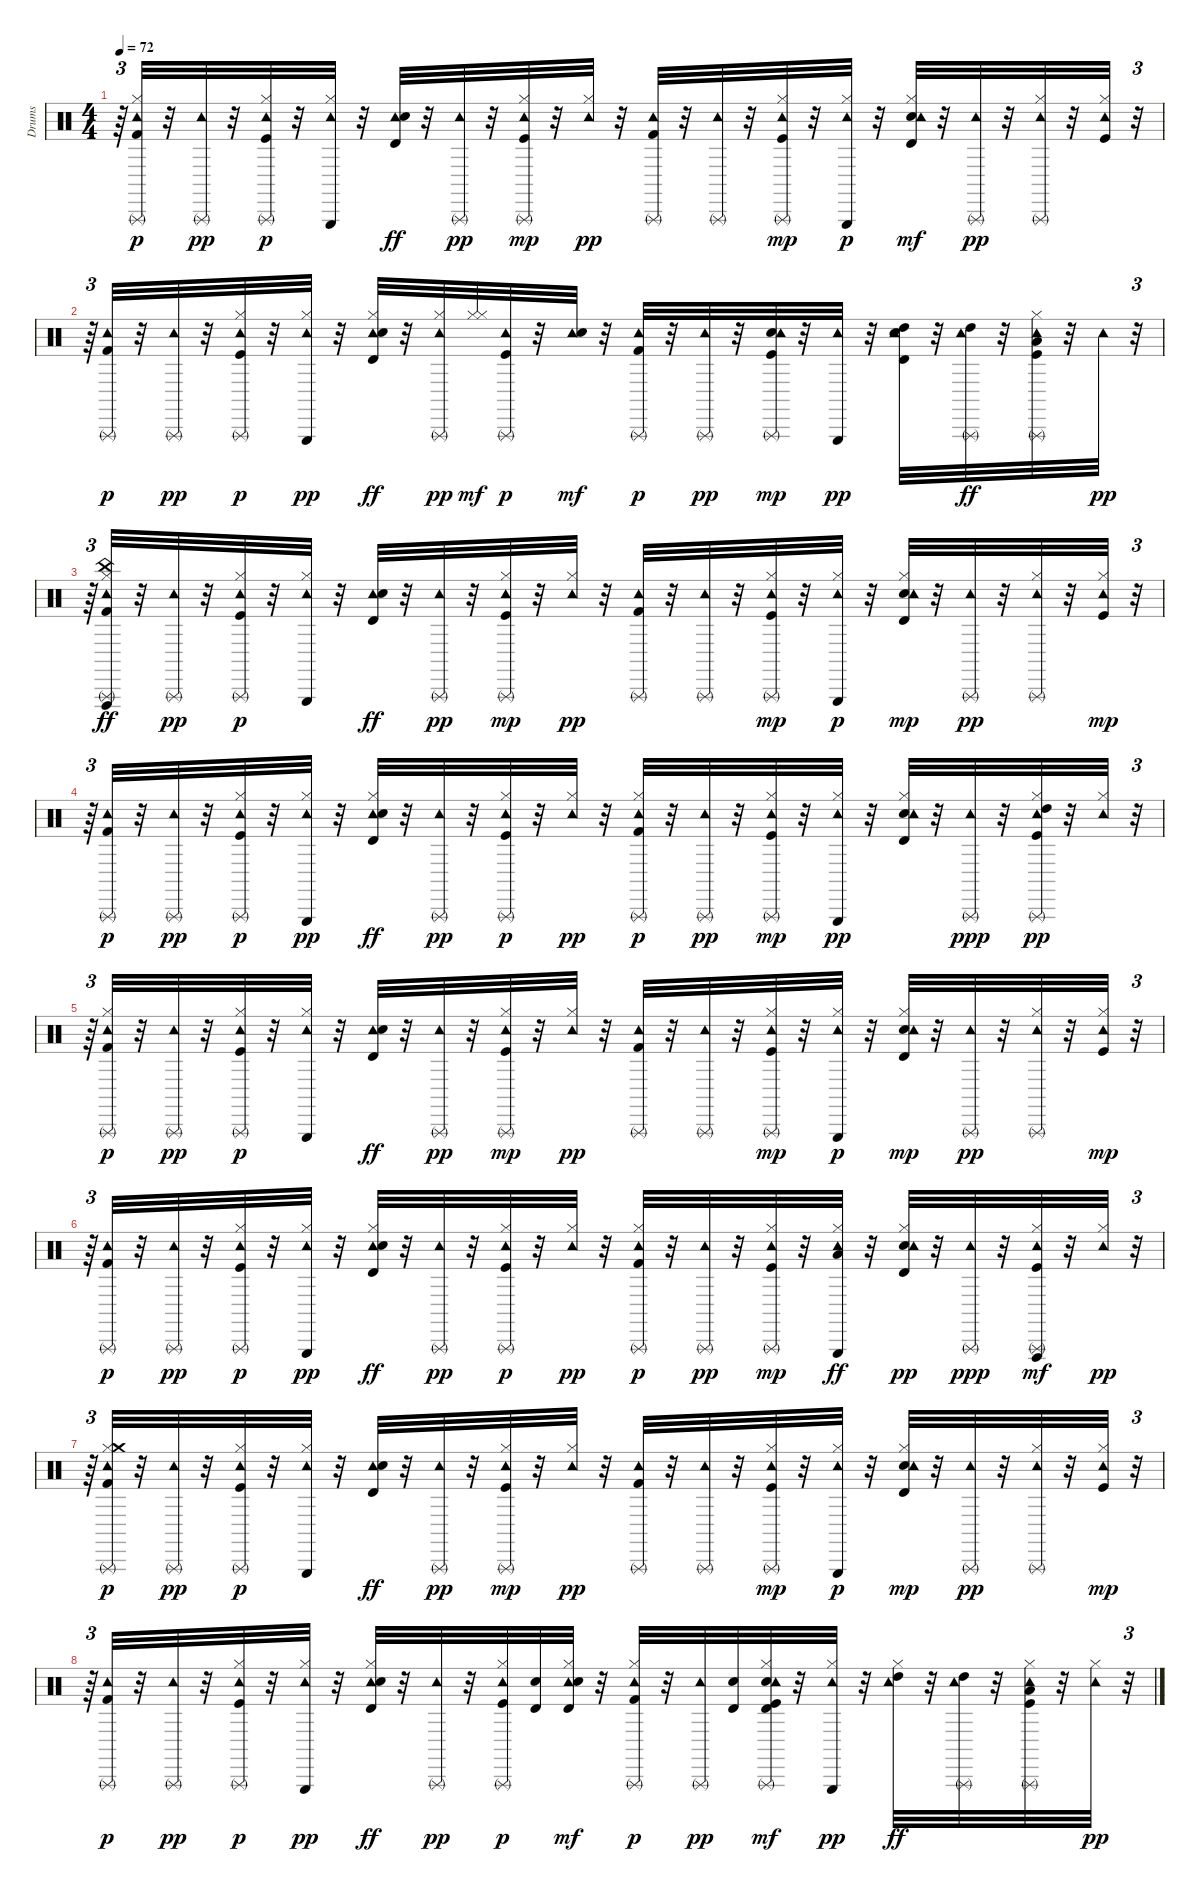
\track ("Drums" "Drums") {instrument percussion}
\staff {score}
\articulation defaults
\ts (4 4)
\tempo 72
\clef neutral
\ks c
r.64{tu (3 2) dy pp} ("Hi-Hat (closed)" "Tambourine (hit)" "Triangle (rnute)" "Kick (hit) 2").32{dy p} r.32 ("Triangle (rnute)" "Tambourine (hit)").32{dy pp} r.32 ("Kick (hit)" "Hi-Hat (closed)" "Tambourine (hit)" "Triangle (rnute)").32{dy p} r.32 ("Hi-Hat (closed)" "Tambourine (hit)" "Triangle (hit)").32 r.32 ("Tambourine (hit)" "Electric Snare (hit)" "Timbale high (hit)").32{dy ff} r.32 ("Triangle (rnute)" "Tambourine (hit)").32{dy pp} r.32 ("Kick (hit)" "Hi-Hat (closed)" "Tambourine (hit)" "Triangle (rnute)").32{dy mp} r.32 ("Hi-Hat (closed)" "Tambourine (hit)").32{dy pp} r.32 ("Tambourine (hit)" "Kick (hit) 2" "Triangle (rnute)").32 r.32 ("Triangle (rnute)" "Tambourine (hit)").32 r.32 ("Hi-Hat (closed)" "Triangle (rnute)" "Tambourine (hit)" "Kick (hit)").32{dy mp} r.32 ("Hi-Hat (closed)" "Tambourine (hit)" "Triangle (hit)").32{dy p} r.32 ("Timbale high (hit)" "Electric Snare (hit)" "Tambourine (hit)" "Hi-Hat (closed)").32{dy mf} r.32 ("Tambourine (hit)" "Triangle (rnute)").32{dy pp} r.32 ("Tambourine (hit)" "Hi-Hat (closed)" "Triangle (rnute)").32 r.32 ("Kick (hit)" "Tambourine (hit)" "Hi-Hat (closed)").32 r.32{tu (3 2)} |
r.64{tu (3 2)} ("Kick (hit) 2" "Tambourine (hit)" "Triangle (rnute)").32{dy p} r.32 ("Triangle (rnute)" "Tambourine (hit)").32{dy pp} r.32 ("Kick (hit)" "Hi-Hat (closed)" "Triangle (rnute)" "Tambourine (hit)").32{dy p} r.32 ("Hi-Hat (closed)" "Triangle (hit)" "Tambourine (hit)").32{dy pp} r.32 ("Hi-Hat (closed)" "Tambourine (hit)" "Electric Snare (hit)" "Timbale high (hit)").32{dy ff} r.32 ("Hi-Hat (closed)" "Tambourine (hit)" "Triangle (rnute)").32{dy pp} ("Hi-Hat (closed)" "Hi-Hat (closed)").32{dy mf} ("Kick (hit)" "Tambourine (hit)" "Triangle (rnute)").32{dy p} r.32 ("Tambourine (hit)" "Snare (hit) 2").32{dy mf} r.32 ("Triangle (rnute)" "Tambourine (hit)" "Kick (hit) 2").32{dy p} r.32 ("Triangle (rnute)" "Tambourine (hit)").32{dy pp} r.32 ("Triangle (rnute)" "Snare (hit) 2" "Tambourine (hit)" "Kick (hit)").32{dy mp} r.32 ("Triangle (hit)" "Tambourine (hit)").32{dy pp} r.32 ("Electric Snare (hit)" "Timbale high (hit)" "Tambourine (hit)" "High Tom (hit)").32 r.32 ("Triangle (rnute)" "Tambourine (hit)" "High Tom (hit)").32{dy ff} r.32 ("Kick (hit)" "Hi-Hat (closed)" "Triangle (rnute)" "Tambourine (hit)" "Low Tom (hit)").32 r.32 "Tambourine (hit)".32{dy pp} r.32{tu (3 2)} |
r.64{tu (3 2)} ("Hi-Hat (closed)" "Tambourine (hit)" "Vibraslap (hit)" "Triangle (rnute)" "Kick (hit) 2" "China (hit)").32{dy ff} r.32 ("Triangle (rnute)" "Tambourine (hit)").32{dy pp} r.32 ("Kick (hit)" "Hi-Hat (closed)" "Tambourine (hit)" "Triangle (rnute)").32{dy p} r.32 ("Hi-Hat (closed)" "Tambourine (hit)" "Triangle (hit)").32 r.32 ("Tambourine (hit)" "Electric Snare (hit)" "Timbale high (hit)").32{dy ff} r.32 ("Triangle (rnute)" "Tambourine (hit)").32{dy pp} r.32 ("Kick (hit)" "Hi-Hat (closed)" "Tambourine (hit)" "Triangle (rnute)").32{dy mp} r.32 ("Hi-Hat (closed)" "Tambourine (hit)").32{dy pp} r.32 ("Tambourine (hit)" "Kick (hit) 2" "Triangle (rnute)").32 r.32 ("Triangle (rnute)" "Tambourine (hit)").32 r.32 ("Hi-Hat (closed)" "Triangle (rnute)" "Tambourine (hit)" "Kick (hit)").32{dy mp} r.32 ("Hi-Hat (closed)" "Tambourine (hit)" "Triangle (hit)").32{dy p} r.32 ("Timbale high (hit)" "Electric Snare (hit)" "Tambourine (hit)" "Hi-Hat (closed)").32{dy mp} r.32 ("Tambourine (hit)" "Triangle (rnute)").32{dy pp} r.32 ("Tambourine (hit)" "Hi-Hat (closed)" "Triangle (rnute)").32 r.32 ("Kick (hit)" "Tambourine (hit)" "Hi-Hat (closed)").32{dy mp} r.32{tu (3 2)} |
r.64{tu (3 2)} ("Kick (hit) 2" "Tambourine (hit)" "Triangle (rnute)").32{dy p} r.32 ("Triangle (rnute)" "Tambourine (hit)").32{dy pp} r.32 ("Kick (hit)" "Hi-Hat (closed)" "Triangle (rnute)" "Tambourine (hit)").32{dy p} r.32 ("Hi-Hat (closed)" "Triangle (hit)" "Tambourine (hit)").32{dy pp} r.32 ("Hi-Hat (closed)" "Tambourine (hit)" "Electric Snare (hit)" "Timbale high (hit)").32{dy ff} r.32 ("Tambourine (hit)" "Triangle (rnute)").32{dy pp} r.32 ("Kick (hit)" "Hi-Hat (closed)" "Tambourine (hit)" "Triangle (rnute)").32{dy p} r.32 ("Hi-Hat (closed)" "Tambourine (hit)").32{dy pp} r.32 ("Hi-Hat (closed)" "Triangle (rnute)" "Tambourine (hit)" "Kick (hit) 2").32{dy p} r.32 ("Triangle (rnute)" "Tambourine (hit)").32{dy pp} r.32 ("Hi-Hat (closed)" "Triangle (rnute)" "Tambourine (hit)" "Kick (hit)").32{dy mp} r.32 ("Hi-Hat (closed)" "Triangle (hit)" "Tambourine (hit)").32{dy pp} r.32 ("Electric Snare (hit)" "Timbale high (hit)" "Hi-Hat (closed)" "Tambourine (hit)").32 r.32 ("Triangle (rnute)" "Tambourine (hit)").32{dy ppp} r.32 ("Kick (hit)" "Hi-Hat (closed)" "Triangle (rnute)" "High Tom (hit)" "Tambourine (hit)").32{dy pp} r.32 ("Hi-Hat (closed)" "Tambourine (hit)").32 r.32{tu (3 2)} |
r.64{tu (3 2)} ("Hi-Hat (closed)" "Tambourine (hit)" "Triangle (rnute)" "Kick (hit) 2").32{dy p} r.32 ("Triangle (rnute)" "Tambourine (hit)").32{dy pp} r.32 ("Kick (hit)" "Hi-Hat (closed)" "Tambourine (hit)" "Triangle (rnute)").32{dy p} r.32 ("Hi-Hat (closed)" "Tambourine (hit)" "Triangle (hit)").32 r.32 ("Tambourine (hit)" "Electric Snare (hit)" "Timbale high (hit)").32{dy ff} r.32 ("Triangle (rnute)" "Tambourine (hit)").32{dy pp} r.32 ("Kick (hit)" "Hi-Hat (closed)" "Tambourine (hit)" "Triangle (rnute)").32{dy mp} r.32 ("Hi-Hat (closed)" "Tambourine (hit)").32{dy pp} r.32 ("Tambourine (hit)" "Kick (hit) 2" "Triangle (rnute)").32 r.32 ("Triangle (rnute)" "Tambourine (hit)").32 r.32 ("Hi-Hat (closed)" "Triangle (rnute)" "Tambourine (hit)" "Kick (hit)").32{dy mp} r.32 ("Hi-Hat (closed)" "Tambourine (hit)" "Triangle (hit)").32{dy p} r.32 ("Timbale high (hit)" "Electric Snare (hit)" "Tambourine (hit)" "Hi-Hat (closed)").32{dy mp} r.32 ("Tambourine (hit)" "Triangle (rnute)").32{dy pp} r.32 ("Tambourine (hit)" "Hi-Hat (closed)" "Triangle (rnute)").32 r.32 ("Kick (hit)" "Tambourine (hit)" "Hi-Hat (closed)").32{dy mp} r.32{tu (3 2)} |
r.64{tu (3 2)} ("Kick (hit) 2" "Tambourine (hit)" "Triangle (rnute)").32{dy p} r.32 ("Triangle (rnute)" "Tambourine (hit)").32{dy pp} r.32 ("Kick (hit)" "Hi-Hat (closed)" "Triangle (rnute)" "Tambourine (hit)").32{dy p} r.32 ("Hi-Hat (closed)" "Triangle (hit)" "Tambourine (hit)").32{dy pp} r.32 ("Hi-Hat (closed)" "Tambourine (hit)" "Electric Snare (hit)" "Timbale high (hit)").32{dy ff} r.32 ("Tambourine (hit)" "Triangle (rnute)").32{dy pp} r.32 ("Kick (hit)" "Hi-Hat (closed)" "Tambourine (hit)" "Triangle (rnute)").32{dy p} r.32 ("Hi-Hat (closed)" "Tambourine (hit)").32{dy pp} r.32 ("Hi-Hat (closed)" "Triangle (rnute)" "Tambourine (hit)" "Kick (hit) 2").32{dy p} r.32 ("Triangle (rnute)" "Tambourine (hit)").32{dy pp} r.32 ("Hi-Hat (closed)" "Triangle (rnute)" "Tambourine (hit)" "Kick (hit)").32{dy mp} r.32 ("Hi-Hat (closed)" "Triangle (hit)" "Tambourine (hit)" "Low Tom (hit)").32{dy ff} r.32 ("Electric Snare (hit)" "Timbale high (hit)" "Hi-Hat (closed)" "Tambourine (hit)").32{dy pp} r.32 ("Triangle (rnute)" "Tambourine (hit)").32{dy ppp} r.32 ("Kick (hit)" "Hi-Hat (closed)" "Triangle (rnute)" "Tambourine (hit)" "Vibraslap (hit)").32{dy mf} r.32 ("Hi-Hat (closed)" "Tambourine (hit)").32{dy pp} r.32{tu (3 2)} |
r.64{tu (3 2)} ("Hi-Hat (closed)" "Tambourine (hit)" "Crash medium (hit)" "Triangle (rnute)" "Kick (hit) 2").32{dy p} r.32 ("Triangle (rnute)" "Tambourine (hit)").32{dy pp} r.32 ("Kick (hit)" "Hi-Hat (closed)" "Tambourine (hit)" "Triangle (rnute)").32{dy p} r.32 ("Hi-Hat (closed)" "Tambourine (hit)" "Triangle (hit)").32 r.32 ("Tambourine (hit)" "Electric Snare (hit)" "Timbale high (hit)").32{dy ff} r.32 ("Triangle (rnute)" "Tambourine (hit)").32{dy pp} r.32 ("Kick (hit)" "Hi-Hat (closed)" "Tambourine (hit)" "Triangle (rnute)").32{dy mp} r.32 ("Hi-Hat (closed)" "Tambourine (hit)").32{dy pp} r.32 ("Tambourine (hit)" "Kick (hit) 2" "Triangle (rnute)").32 r.32 ("Triangle (rnute)" "Tambourine (hit)").32 r.32 ("Hi-Hat (closed)" "Triangle (rnute)" "Tambourine (hit)" "Kick (hit)").32{dy mp} r.32 ("Hi-Hat (closed)" "Tambourine (hit)" "Triangle (hit)").32{dy p} r.32 ("Timbale high (hit)" "Electric Snare (hit)" "Tambourine (hit)" "Hi-Hat (closed)").32{dy mp} r.32 ("Tambourine (hit)" "Triangle (rnute)").32{dy pp} r.32 ("Tambourine (hit)" "Hi-Hat (closed)" "Triangle (rnute)").32 r.32 ("Kick (hit)" "Tambourine (hit)" "Hi-Hat (closed)").32{dy mp} r.32{tu (3 2)} |
r.64{tu (3 2)} ("Kick (hit) 2" "Tambourine (hit)" "Triangle (rnute)").32{dy p} r.32 ("Triangle (rnute)" "Tambourine (hit)").32{dy pp} r.32 ("Kick (hit)" "Hi-Hat (closed)" "Triangle (rnute)" "Tambourine (hit)").32{dy p} r.32 ("Hi-Hat (closed)" "Triangle (hit)" "Tambourine (hit)").32{dy pp} r.32 ("Hi-Hat (closed)" "Tambourine (hit)" "Electric Snare (hit)" "Timbale high (hit)").32{dy ff} r.32 ("Tambourine (hit)" "Triangle (rnute)").32{dy pp} r.32 ("Kick (hit)" "Hi-Hat (closed)" "Tambourine (hit)" "Triangle (rnute)").32{dy p} ("Timbale high (hit)" "Electric Snare (hit)").32 ("Hi-Hat (closed)" "Tambourine (hit)" "Electric Snare (hit)" "Timbale high (hit)").32{dy mf} r.32 ("Hi-Hat (closed)" "Triangle (rnute)" "Tambourine (hit)" "Kick (hit) 2").32{dy p} r.32 ("Triangle (rnute)" "Tambourine (hit)").32{dy pp} ("Electric Snare (hit)" "Timbale high (hit)").32 ("Hi-Hat (closed)" "Triangle (rnute)" "Electric Snare (hit)" "Tambourine (hit)" "Kick (hit)" "Timbale high (hit)").32{dy mf} r.32 ("Hi-Hat (closed)" "Triangle (hit)" "Tambourine (hit)").32{dy pp} r.32 ("Hi-Hat (closed)" "Tambourine (hit)" "High Tom (hit)").32{dy ff} r.32 ("Triangle (rnute)" "Tambourine (hit)" "High Tom (hit)").32 r.32 ("Kick (hit)" "Hi-Hat (closed)" "Triangle (rnute)" "Tambourine (hit)" "Low Tom (hit)").32 r.32 ("Hi-Hat (closed)" "Tambourine (hit)").32{dy pp} r.32{tu (3 2)}
